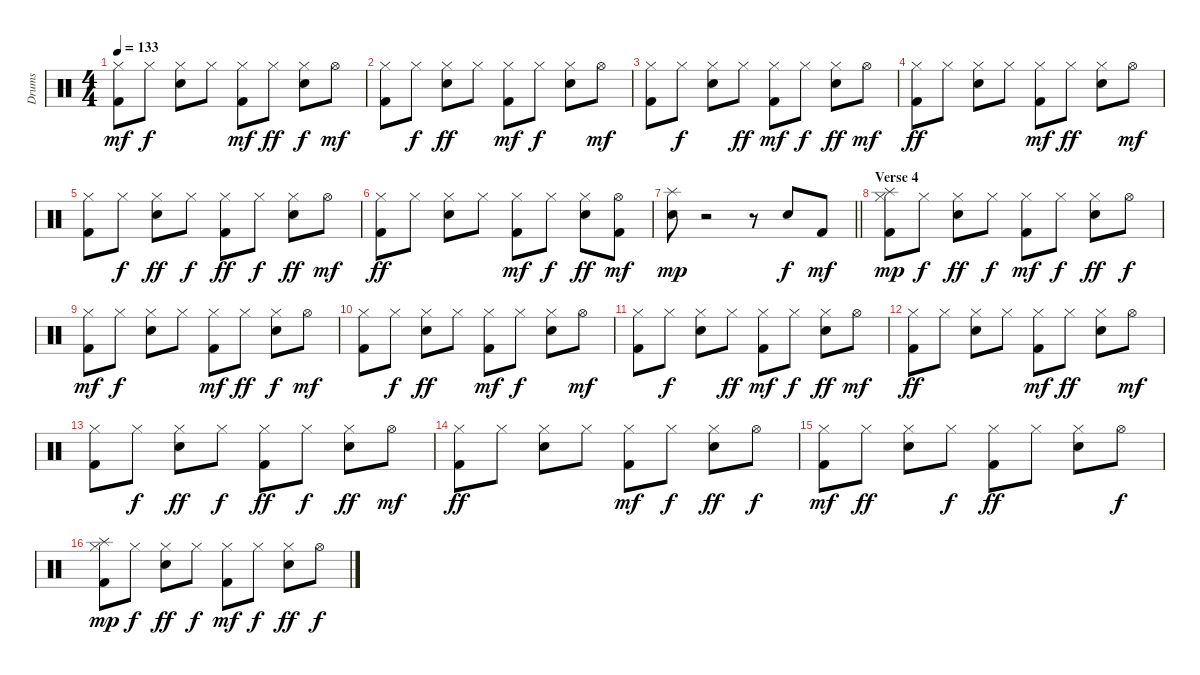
\track ("Drums   " "Drums   ") {instrument percussion}
\staff {score}
\articulation defaults
\ts (4 4)
\tempo 133
\clef neutral
\ks c
("Kick (hit) 2" "Hi-Hat (closed)").8{dy mf} "Hi-Hat (closed)".8{dy f} ("Electric Snare (hit)" "Hi-Hat (closed)").8 "Hi-Hat (closed)".8 ("Kick (hit) 2" "Hi-Hat (closed)").8{dy mf} "Hi-Hat (closed)".8{dy ff} ("Electric Snare (hit)" "Hi-Hat (closed)").8{dy f} "Hi-Hat (open)".8{dy mf} |
("Kick (hit) 2" "Hi-Hat (closed)").8 "Hi-Hat (closed)".8{dy f} ("Electric Snare (hit)" "Hi-Hat (closed)").8{dy ff} "Hi-Hat (closed)".8 ("Kick (hit) 2" "Hi-Hat (closed)").8{dy mf} "Hi-Hat (closed)".8{dy f} ("Electric Snare (hit)" "Hi-Hat (closed)").8 "Hi-Hat (open)".8{dy mf} |
("Kick (hit) 2" "Hi-Hat (closed)").8 "Hi-Hat (closed)".8{dy f} ("Electric Snare (hit)" "Hi-Hat (closed)").8 "Hi-Hat (closed)".8{dy ff} ("Kick (hit) 2" "Hi-Hat (closed)").8{dy mf} "Hi-Hat (closed)".8{dy f} ("Electric Snare (hit)" "Hi-Hat (closed)").8{dy ff} "Hi-Hat (open)".8{dy mf} |
("Kick (hit) 2" "Hi-Hat (closed)").8{dy ff} "Hi-Hat (closed)".8 ("Electric Snare (hit)" "Hi-Hat (closed)").8 "Hi-Hat (closed)".8 ("Kick (hit) 2" "Hi-Hat (closed)").8{dy mf} "Hi-Hat (closed)".8{dy ff} ("Electric Snare (hit)" "Hi-Hat (closed)").8 "Hi-Hat (open)".8{dy mf} |
("Kick (hit) 2" "Hi-Hat (closed)").8 "Hi-Hat (closed)".8{dy f} ("Electric Snare (hit)" "Hi-Hat (closed)").8{dy ff} "Hi-Hat (closed)".8{dy f} ("Kick (hit) 2" "Hi-Hat (closed)").8{dy ff} "Hi-Hat (closed)".8{dy f} ("Electric Snare (hit)" "Hi-Hat (closed)").8{dy ff} "Hi-Hat (open)".8{dy mf} |
("Kick (hit) 2" "Hi-Hat (closed)").8{dy ff} "Hi-Hat (closed)".8 ("Electric Snare (hit)" "Hi-Hat (closed)").8 "Hi-Hat (closed)".8 ("Kick (hit) 2" "Hi-Hat (closed)").8{dy mf} "Hi-Hat (closed)".8{dy f} ("Electric Snare (hit)" "Hi-Hat (closed)").8{dy ff} ("Kick (hit) 2" "Hi-Hat (open)").8{dy mf} |
\barLineRight lightlight
("Electric Snare (hit)" "Splash (hit)").8{dy mp} r.2 r.8 "Electric Snare (hit)".8{dy f} "Kick (hit) 2".8{dy mf} |
\section ("" "Verse 4")
("Kick (hit) 2" "Hi-Hat (closed)" "Splash (hit)").8{dy mp} "Hi-Hat (closed)".8{dy f} ("Electric Snare (hit)" "Hi-Hat (closed)").8{dy ff} "Hi-Hat (closed)".8{dy f} ("Kick (hit) 2" "Hi-Hat (closed)").8{dy mf} "Hi-Hat (closed)".8{dy f} ("Electric Snare (hit)" "Hi-Hat (closed)").8{dy ff} "Hi-Hat (open)".8{dy f} |
("Kick (hit) 2" "Hi-Hat (closed)").8{dy mf} "Hi-Hat (closed)".8{dy f} ("Electric Snare (hit)" "Hi-Hat (closed)").8 "Hi-Hat (closed)".8 ("Kick (hit) 2" "Hi-Hat (closed)").8{dy mf} "Hi-Hat (closed)".8{dy ff} ("Electric Snare (hit)" "Hi-Hat (closed)").8{dy f} "Hi-Hat (open)".8{dy mf} |
("Kick (hit) 2" "Hi-Hat (closed)").8 "Hi-Hat (closed)".8{dy f} ("Electric Snare (hit)" "Hi-Hat (closed)").8{dy ff} "Hi-Hat (closed)".8 ("Kick (hit) 2" "Hi-Hat (closed)").8{dy mf} "Hi-Hat (closed)".8{dy f} ("Electric Snare (hit)" "Hi-Hat (closed)").8 "Hi-Hat (open)".8{dy mf} |
("Kick (hit) 2" "Hi-Hat (closed)").8 "Hi-Hat (closed)".8{dy f} ("Electric Snare (hit)" "Hi-Hat (closed)").8 "Hi-Hat (closed)".8{dy ff} ("Kick (hit) 2" "Hi-Hat (closed)").8{dy mf} "Hi-Hat (closed)".8{dy f} ("Electric Snare (hit)" "Hi-Hat (closed)").8{dy ff} "Hi-Hat (open)".8{dy mf} |
("Kick (hit) 2" "Hi-Hat (closed)").8{dy ff} "Hi-Hat (closed)".8 ("Electric Snare (hit)" "Hi-Hat (closed)").8 "Hi-Hat (closed)".8 ("Kick (hit) 2" "Hi-Hat (closed)").8{dy mf} "Hi-Hat (closed)".8{dy ff} ("Electric Snare (hit)" "Hi-Hat (closed)").8 "Hi-Hat (open)".8{dy mf} |
("Kick (hit) 2" "Hi-Hat (closed)").8 "Hi-Hat (closed)".8{dy f} ("Electric Snare (hit)" "Hi-Hat (closed)").8{dy ff} "Hi-Hat (closed)".8{dy f} ("Kick (hit) 2" "Hi-Hat (closed)").8{dy ff} "Hi-Hat (closed)".8{dy f} ("Electric Snare (hit)" "Hi-Hat (closed)").8{dy ff} "Hi-Hat (open)".8{dy mf} |
("Kick (hit) 2" "Hi-Hat (closed)").8{dy ff} "Hi-Hat (closed)".8 ("Electric Snare (hit)" "Hi-Hat (closed)").8 "Hi-Hat (closed)".8 ("Kick (hit) 2" "Hi-Hat (closed)").8{dy mf} "Hi-Hat (closed)".8{dy f} ("Electric Snare (hit)" "Hi-Hat (closed)").8{dy ff} "Hi-Hat (open)".8{dy f} |
("Kick (hit) 2" "Hi-Hat (closed)").8{dy mf} "Hi-Hat (closed)".8{dy ff} ("Electric Snare (hit)" "Hi-Hat (closed)").8 "Hi-Hat (closed)".8{dy f} ("Kick (hit) 2" "Hi-Hat (closed)").8{dy ff} "Hi-Hat (closed)".8 ("Electric Snare (hit)" "Hi-Hat (closed)").8 "Hi-Hat (open)".8{dy f} |
("Kick (hit) 2" "Hi-Hat (closed)" "Splash (hit)").8{dy mp} "Hi-Hat (closed)".8{dy f} ("Electric Snare (hit)" "Hi-Hat (closed)").8{dy ff} "Hi-Hat (closed)".8{dy f} ("Kick (hit) 2" "Hi-Hat (closed)").8{dy mf} "Hi-Hat (closed)".8{dy f} ("Electric Snare (hit)" "Hi-Hat (closed)").8{dy ff} "Hi-Hat (open)".8{dy f}
